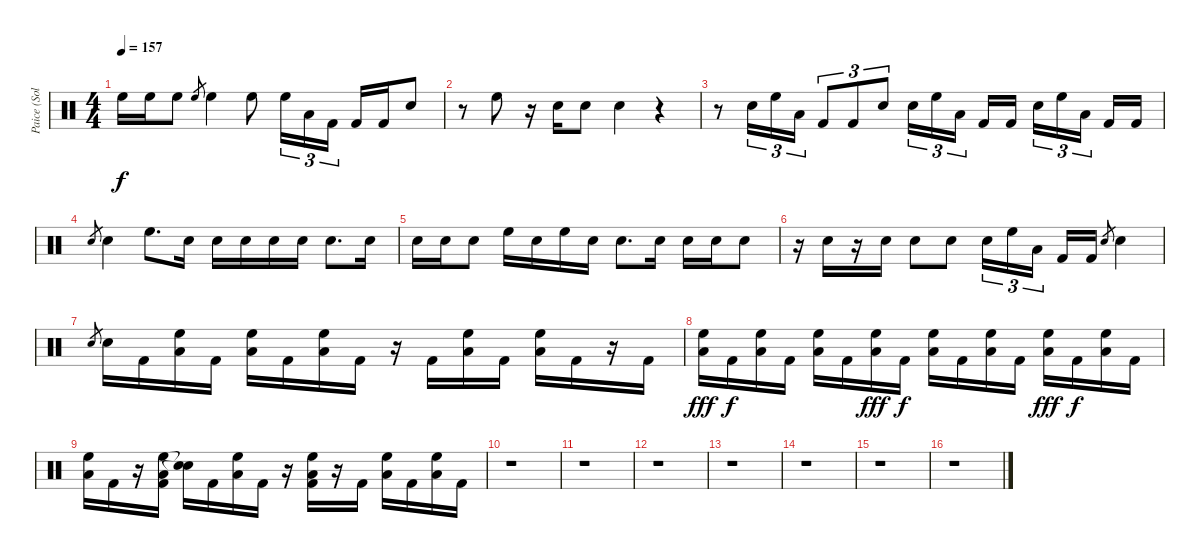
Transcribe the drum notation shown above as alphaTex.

\track ("Paice (Solo)" "Paice (Sol") {instrument percussion}
\staff {score}
\articulation defaults
\ts (4 4)
\tempo 157
\clef neutral
\ks c "High Floor Tom (hit)".16{dy f} "High Floor Tom (hit)".16 "High Floor Tom (hit)".8 "High Floor Tom (hit)".8{gr} "High Floor Tom (hit)".4 "High Floor Tom (hit)".8 "High Floor Tom (hit)".16{tu (3 2)} "Low Tom (hit)".16{tu (3 2)} "Kick (hit) 2".16{tu (3 2)} "Kick (hit) 2".16 "Kick (hit) 2".16 "Snare (hit) 2".8
|
r.8 "High Floor Tom (hit)".8 r.16 "Snare (hit) 2".16 "Snare (hit) 2".8 "Snare (hit) 2".4 r.4 |
r.8 "Snare (hit) 2".16{tu (3 2)} "High Floor Tom (hit)".16{tu (3 2)} "Low Tom (hit)".16{tu (3 2)} "Kick (hit) 2".8{tu (3 2)} "Kick (hit) 2".8{tu (3 2)} "Snare (hit) 2".8{tu (3 2)} "Snare (hit) 2".16{tu (3 2)} "High Floor Tom (hit)".16{tu (3 2)} "Low Tom (hit)".16{tu (3 2)} "Kick (hit) 2".16 "Kick (hit) 2".16 "Snare (hit) 2".16{tu (3 2)} "High Floor Tom (hit)".16{tu (3 2)} "Low Tom (hit)".16{tu (3 2)} "Kick (hit) 2".16 "Kick (hit) 2".16 |
"Snare (hit) 2".8{gr} "Snare (hit) 2".4 "High Floor Tom (hit)".8{d} "Snare (hit) 2".16 "Snare (hit) 2".16 "Snare (hit) 2".16 "Snare (hit) 2".16 "Snare (hit) 2".16 "Snare (hit) 2".8{d} "Snare (hit) 2".16 |
"Snare (hit) 2".16 "Snare (hit) 2".16 "Snare (hit) 2".8 "High Floor Tom (hit)".16 "Snare (hit) 2".16 "High Floor Tom (hit)".16 "Snare (hit) 2".16 "Snare (hit) 2".8{d} "Snare (hit) 2".16 "Snare (hit) 2".16 "Snare (hit) 2".16 "Snare (hit) 2".8 |
r.16 "Snare (hit) 2".16 r.16 "Snare (hit) 2".16 "Snare (hit) 2".8 "Snare (hit) 2".8 "Snare (hit) 2".16{tu (3 2)} "High Floor Tom (hit)".16{tu (3 2)} "Low Tom (hit)".16{tu (3 2)} "Kick (hit) 2".16 "Kick (hit) 2".16 "Snare (hit) 2".8{gr} "Snare (hit) 2".4 |
"Snare (hit) 2".8{gr} "Snare (hit) 2".16 "Kick (hit) 2".16 ("High Floor Tom (hit)" "Low Tom (hit)").16 "Kick (hit) 2".16 ("High Floor Tom (hit)" "Low Tom (hit)").16 "Kick (hit) 2".16 ("High Floor Tom (hit)" "Low Tom (hit)").16 "Kick (hit) 2".16 r.16 "Kick (hit) 2".16 ("High Floor Tom (hit)" "Low Tom (hit)").16 "Kick (hit) 2".16 ("High Floor Tom (hit)" "Low Tom (hit)").16 "Kick (hit) 2".16 r.16 "Kick (hit) 2".16 |
("High Floor Tom (hit)" "Low Tom (hit)").16{dy fff} "Kick (hit) 2".16{dy f} ("High Floor Tom (hit)" "Low Tom (hit)").16 "Kick (hit) 2".16 ("High Floor Tom (hit)" "Low Tom (hit)").16 "Kick (hit) 2".16 ("High Floor Tom (hit)" "Low Tom (hit)").16{dy fff} "Kick (hit) 2".16{dy f} ("High Floor Tom (hit)" "Low Tom (hit)").16 "Kick (hit) 2".16 ("High Floor Tom (hit)" "Low Tom (hit)").16 "Kick (hit) 2".16 ("High Floor Tom (hit)" "Low Tom (hit)").16{dy fff} "Kick (hit) 2".16{dy f} ("High Floor Tom (hit)" "Low Tom (hit)").16 "Kick (hit) 2".16 |
("High Floor Tom (hit)" "Low Tom (hit)").16 "Kick (hit) 2".16 r.16 ("High Floor Tom (hit)" "Low Tom (hit)" "Kick (hit) 2").16 ("Snare (hit)"{t} "Snare (hit)"{t}).16 "Kick (hit) 2".16 ("High Floor Tom (hit)" "Low Tom (hit)").16 "Kick (hit) 2".16 r.16 ("High Floor Tom (hit)" "Low Tom (hit)" "Kick (hit) 2").16 r.16 "Kick (hit) 2".16 ("High Floor Tom (hit)" "Low Tom (hit)").16 "Kick (hit) 2".16 ("High Floor Tom (hit)" "Low Tom (hit)").16 "Kick (hit) 2".16 |
r.1 |
r.1 |
r.1 |
r.1 |
r.1 |
r.1 |
r.1
